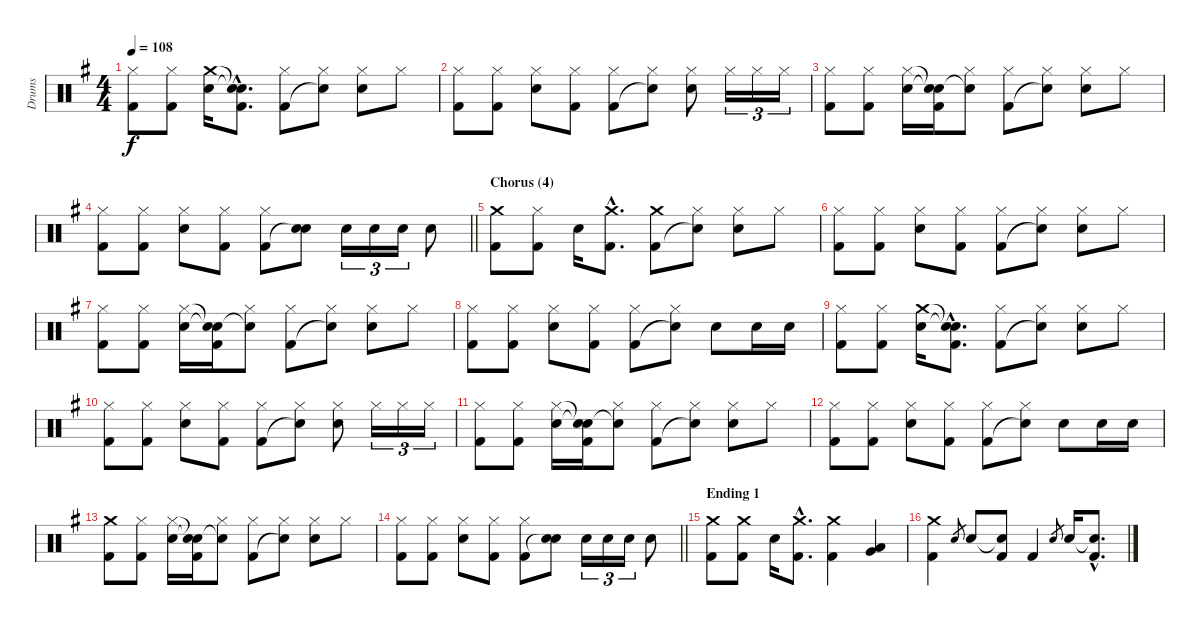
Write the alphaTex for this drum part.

\track ("Drums" "Drums") {instrument percussion}
\staff {score}
\articulation defaults
\ts (4 4)
\tempo 108
\clef neutral
\ks eminor
("Hi-Hat (closed)" "Kick (hit) 2").8{dy f} ("Hi-Hat (closed)" "Kick (hit) 2").8 ("Crash medium (hit)" "Electric Snare (hit)").16 ("Snare (hit)"{hac t} "Snare (hit)"{hac t} "Kick (hit) 2"{hac}).8{d} ("Hi-Hat (closed)" "Kick (hit) 2").8 ("Hi-Hat (closed)" "Snare (hit)"{t}).8 ("Hi-Hat (closed)" "Electric Snare (hit)").8 "Hi-Hat (closed)".8 |
("Hi-Hat (closed)" "Kick (hit) 2").8 ("Hi-Hat (closed)" "Kick (hit) 2").8 ("Hi-Hat (closed)" "Electric Snare (hit)").8 ("Hi-Hat (closed)" "Kick (hit) 2").8 ("Hi-Hat (closed)" "Kick (hit) 2").8 ("Hi-Hat (closed)" "Snare (hit)"{t}).8 ("Hi-Hat (closed)" "Electric Snare (hit)").8 "Hi-Hat (closed)".16{tu (3 2)} "Hi-Hat (closed)".16{tu (3 2)} "Hi-Hat (closed)".16{tu (3 2)} |
("Hi-Hat (closed)" "Kick (hit) 2").8 ("Hi-Hat (closed)" "Kick (hit) 2").8 ("Hi-Hat (closed)" "Electric Snare (hit)").16 ("Snare (hit)"{t} "Snare (hit)"{t} "Kick (hit) 2").16 ("Hi-Hat (closed)" "Snare (hit)"{t}).8 ("Hi-Hat (closed)" "Kick (hit) 2").8 ("Hi-Hat (closed)" "Snare (hit)"{t}).8 ("Hi-Hat (closed)" "Electric Snare (hit)").8 "Hi-Hat (closed)".8 |
\barLineRight lightlight
("Hi-Hat (closed)" "Kick (hit) 2").8 ("Hi-Hat (closed)" "Kick (hit) 2").8 ("Hi-Hat (closed)" "Electric Snare (hit)").8 ("Hi-Hat (closed)" "Kick (hit) 2").8 ("Hi-Hat (closed)" "Kick (hit) 2").8 ("Electric Snare (hit)" "Snare (hit)"{t}).8 "Electric Snare (hit)".16{tu (3 2)} "Electric Snare (hit)".16{tu (3 2)} "Electric Snare (hit)".16{tu (3 2)} "Electric Snare (hit)".8 |
\section ("" "Chorus (4)")
("Crash medium (hit)" "Kick (hit) 2").8 ("Hi-Hat (closed)" "Kick (hit) 2").8 "Electric Snare (hit)".16 ("Crash medium (hit)"{hac} "Kick (hit) 2"{hac}).8{d} ("Crash medium (hit)" "Kick (hit) 2").8 ("Hi-Hat (closed)" "Snare (hit)"{t}).8 ("Hi-Hat (closed)" "Electric Snare (hit)").8 "Hi-Hat (closed)".8 |
("Hi-Hat (closed)" "Kick (hit) 2").8 ("Hi-Hat (closed)" "Kick (hit) 2").8 ("Hi-Hat (closed)" "Electric Snare (hit)").8 ("Hi-Hat (closed)" "Kick (hit) 2").8 ("Hi-Hat (closed)" "Kick (hit) 2").8 ("Hi-Hat (closed)" "Snare (hit)"{t}).8 ("Hi-Hat (closed)" "Electric Snare (hit)").8 "Hi-Hat (closed)".8 |
("Hi-Hat (closed)" "Kick (hit) 2").8 ("Hi-Hat (closed)" "Kick (hit) 2").8 ("Hi-Hat (closed)" "Electric Snare (hit)").16 ("Snare (hit)"{t} "Snare (hit)"{t} "Kick (hit) 2").16 ("Hi-Hat (closed)" "Snare (hit)"{t}).8 ("Hi-Hat (closed)" "Kick (hit) 2").8 ("Hi-Hat (closed)" "Snare (hit)"{t}).8 ("Hi-Hat (closed)" "Electric Snare (hit)").8 "Hi-Hat (closed)".8 |
("Hi-Hat (closed)" "Kick (hit) 2").8 ("Hi-Hat (closed)" "Kick (hit) 2").8 ("Hi-Hat (closed)" "Electric Snare (hit)").8 ("Hi-Hat (closed)" "Kick (hit) 2").8 ("Hi-Hat (closed)" "Kick (hit) 2").8 ("Hi-Hat (closed)" "Snare (hit)"{t}).8 "Electric Snare (hit)".8 "Electric Snare (hit)".16 "Electric Snare (hit)".16 |
("Hi-Hat (closed)" "Kick (hit) 2").8 ("Hi-Hat (closed)" "Kick (hit) 2").8 ("Crash medium (hit)" "Electric Snare (hit)").16 ("Snare (hit)"{hac t} "Snare (hit)"{hac t} "Kick (hit) 2"{hac}).8{d} ("Hi-Hat (closed)" "Kick (hit) 2").8 ("Hi-Hat (closed)" "Snare (hit)"{t}).8 ("Hi-Hat (closed)" "Electric Snare (hit)").8 "Hi-Hat (closed)".8 |
("Hi-Hat (closed)" "Kick (hit) 2").8 ("Hi-Hat (closed)" "Kick (hit) 2").8 ("Hi-Hat (closed)" "Electric Snare (hit)").8 ("Hi-Hat (closed)" "Kick (hit) 2").8 ("Hi-Hat (closed)" "Kick (hit) 2").8 ("Hi-Hat (closed)" "Snare (hit)"{t}).8 ("Hi-Hat (closed)" "Electric Snare (hit)").8 "Hi-Hat (closed)".16{tu (3 2)} "Hi-Hat (closed)".16{tu (3 2)} "Hi-Hat (closed)".16{tu (3 2)} |
("Hi-Hat (closed)" "Kick (hit) 2").8 ("Hi-Hat (closed)" "Kick (hit) 2").8 ("Hi-Hat (closed)" "Electric Snare (hit)").16 ("Snare (hit)"{t} "Snare (hit)"{t} "Kick (hit) 2").16 ("Hi-Hat (closed)" "Snare (hit)"{t}).8 ("Hi-Hat (closed)" "Kick (hit) 2").8 ("Hi-Hat (closed)" "Snare (hit)"{t}).8 ("Hi-Hat (closed)" "Electric Snare (hit)").8 "Hi-Hat (closed)".8 |
("Hi-Hat (closed)" "Kick (hit) 2").8 ("Hi-Hat (closed)" "Kick (hit) 2").8 ("Hi-Hat (closed)" "Electric Snare (hit)").8 ("Hi-Hat (closed)" "Kick (hit) 2").8 ("Hi-Hat (closed)" "Kick (hit) 2").8 ("Hi-Hat (closed)" "Snare (hit)"{t}).8 "Electric Snare (hit)".8 "Electric Snare (hit)".16 "Electric Snare (hit)".16 |
("Crash medium (hit)" "Kick (hit) 2").8 ("Hi-Hat (closed)" "Kick (hit) 2").8 ("Hi-Hat (closed)" "Electric Snare (hit)").16 ("Snare (hit)"{t} "Snare (hit)"{t} "Kick (hit) 2").16 ("Hi-Hat (closed)" "Snare (hit)"{t}).8 ("Hi-Hat (closed)" "Kick (hit) 2").8 ("Hi-Hat (closed)" "Snare (hit)"{t}).8 ("Hi-Hat (closed)" "Electric Snare (hit)").8 "Hi-Hat (closed)".8 |
\barLineRight lightlight
("Hi-Hat (closed)" "Kick (hit) 2").8 ("Hi-Hat (closed)" "Kick (hit) 2").8 ("Hi-Hat (closed)" "Electric Snare (hit)").8 ("Hi-Hat (closed)" "Kick (hit) 2").8 ("Hi-Hat (closed)" "Kick (hit) 2").8 ("Electric Snare (hit)" "Snare (hit)"{t}).8 "Electric Snare (hit)".16{tu (3 2)} "Electric Snare (hit)".16{tu (3 2)} "Electric Snare (hit)".16{tu (3 2)} "Electric Snare (hit)".8 |
\section ("" "Ending 1")
("Crash medium (hit)" "Kick (hit) 2").8 ("Crash medium (hit)" "Kick (hit) 2").8 "Electric Snare (hit)".16 ("Crash medium (hit)"{hac} "Kick (hit) 2"{hac}).8{d} ("Crash medium (hit)" "Kick (hit) 2").4 ("Very Low Tom (hit)" "Low Floor Tom (hit)").4 |
("Crash medium (hit)" "Kick (hit) 2").4 "Electric Snare (hit)".8{gr} "Electric Snare (hit)".8 ("Snare (hit)"{t} "Kick (hit) 2").8 "Kick (hit) 2".4 "Electric Snare (hit)".8{gr} "Electric Snare (hit)".16 ("Snare (hit)"{hac t} "Kick (hit) 2"{hac}).8{d}
